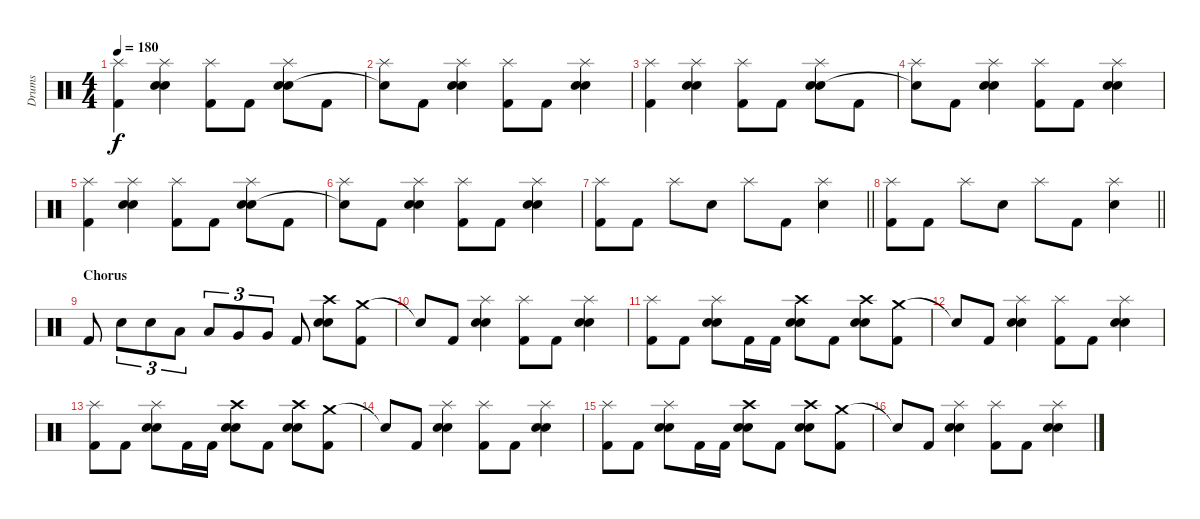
\track ("Drums" "Drums") {instrument percussion}
\staff {score}
\articulation defaults
\ts (4 4)
\tempo 180
\clef neutral
\ks c
("Splash (hit)" "Kick (hit) 2").4{dy f} ("Splash (hit)" "Electric Snare (hit)" "Snare (hit) 2").4 ("Splash (hit)" "Kick (hit) 2").8 "Kick (hit) 2".8 ("Splash (hit)" "Electric Snare (hit)" "Snare (hit) 2").8 "Kick (hit) 2".8 |
("Splash (hit)" "Snare (hit)"{t}).8 "Kick (hit) 2".8 ("Splash (hit)" "Electric Snare (hit)" "Snare (hit) 2").4 ("Splash (hit)" "Kick (hit) 2").8 "Kick (hit) 2".8 ("Splash (hit)" "Electric Snare (hit)" "Snare (hit) 2").4 |
("Splash (hit)" "Kick (hit) 2").4 ("Splash (hit)" "Electric Snare (hit)" "Snare (hit) 2").4 ("Splash (hit)" "Kick (hit) 2").8 "Kick (hit) 2".8 ("Splash (hit)" "Electric Snare (hit)" "Snare (hit) 2").8 "Kick (hit) 2".8 |
("Splash (hit)" "Snare (hit)"{t}).8 "Kick (hit) 2".8 ("Splash (hit)" "Electric Snare (hit)" "Snare (hit) 2").4 ("Splash (hit)" "Kick (hit) 2").8 "Kick (hit) 2".8 ("Splash (hit)" "Electric Snare (hit)" "Snare (hit) 2").4 |
("Splash (hit)" "Kick (hit) 2").4 ("Splash (hit)" "Electric Snare (hit)" "Snare (hit) 2").4 ("Splash (hit)" "Kick (hit) 2").8 "Kick (hit) 2".8 ("Splash (hit)" "Electric Snare (hit)" "Snare (hit) 2").8 "Kick (hit) 2".8 |
("Splash (hit)" "Snare (hit)"{t}).8 "Kick (hit) 2".8 ("Splash (hit)" "Electric Snare (hit)" "Snare (hit) 2").4 ("Splash (hit)" "Kick (hit) 2").8 "Kick (hit) 2".8 ("Splash (hit)" "Electric Snare (hit)" "Snare (hit) 2").4 |
\barLineRight lightlight
("Splash (hit)" "Kick (hit) 2").8 "Kick (hit) 2".8 "Splash (hit)".8 "Electric Snare (hit)".8 "Splash (hit)".8 "Kick (hit) 2".8 ("Splash (hit)" "Electric Snare (hit)").4 |
\barLineRight lightlight
("Splash (hit)" "Kick (hit) 2").8 "Kick (hit) 2".8 "Splash (hit)".8 "Electric Snare (hit)".8 "Splash (hit)".8 "Kick (hit) 2".8 ("Splash (hit)" "Electric Snare (hit)").4 |
\section ("" "Chorus")
"Kick (hit) 2".8 "Electric Snare (hit)".8{tu (3 2)} "Electric Snare (hit)".8{tu (3 2)} "Low Tom (hit)".8{tu (3 2)} "Low Tom (hit)".8{tu (3 2)} "Very Low Tom (hit)".8{tu (3 2)} "Very Low Tom (hit)".8{tu (3 2)} "Kick (hit) 2".8 ("Crash high (hit)" "Electric Snare (hit)" "Snare (hit) 2").8 ("Crash medium (hit)" "Kick (hit) 2").8 |
"Snare (hit)"{t}.8 "Kick (hit) 2".8 ("Splash (hit)" "Electric Snare (hit)" "Snare (hit) 2").4 ("Splash (hit)" "Kick (hit) 2").8 "Kick (hit) 2".8 ("Splash (hit)" "Electric Snare (hit)" "Snare (hit) 2").4 |
("Splash (hit)" "Kick (hit) 2").8 "Kick (hit) 2".8 ("Splash (hit)" "Electric Snare (hit)" "Snare (hit) 2").8 "Kick (hit) 2".16 "Kick (hit) 2".16 ("Crash high (hit)" "Electric Snare (hit)" "Snare (hit) 2").8 "Kick (hit) 2".8 ("Crash high (hit)" "Electric Snare (hit)" "Snare (hit) 2").8 ("Crash medium (hit)" "Kick (hit) 2").8 |
"Snare (hit)"{t}.8 "Kick (hit) 2".8 ("Splash (hit)" "Electric Snare (hit)" "Snare (hit) 2").4 ("Splash (hit)" "Kick (hit) 2").8 "Kick (hit) 2".8 ("Splash (hit)" "Electric Snare (hit)" "Snare (hit) 2").4 |
("Splash (hit)" "Kick (hit) 2").8 "Kick (hit) 2".8 ("Splash (hit)" "Electric Snare (hit)" "Snare (hit) 2").8 "Kick (hit) 2".16 "Kick (hit) 2".16 ("Crash high (hit)" "Electric Snare (hit)" "Snare (hit) 2").8 "Kick (hit) 2".8 ("Crash high (hit)" "Electric Snare (hit)" "Snare (hit) 2").8 ("Crash medium (hit)" "Kick (hit) 2").8 |
"Snare (hit)"{t}.8 "Kick (hit) 2".8 ("Splash (hit)" "Electric Snare (hit)" "Snare (hit) 2").4 ("Splash (hit)" "Kick (hit) 2").8 "Kick (hit) 2".8 ("Splash (hit)" "Electric Snare (hit)" "Snare (hit) 2").4 |
("Splash (hit)" "Kick (hit) 2").8 "Kick (hit) 2".8 ("Splash (hit)" "Electric Snare (hit)" "Snare (hit) 2").8 "Kick (hit) 2".16 "Kick (hit) 2".16 ("Crash high (hit)" "Electric Snare (hit)" "Snare (hit) 2").8 "Kick (hit) 2".8 ("Crash high (hit)" "Electric Snare (hit)" "Snare (hit) 2").8 ("Crash medium (hit)" "Kick (hit) 2").8 |
"Snare (hit)"{t}.8 "Kick (hit) 2".8 ("Splash (hit)" "Electric Snare (hit)" "Snare (hit) 2").4 ("Splash (hit)" "Kick (hit) 2").8 "Kick (hit) 2".8 ("Splash (hit)" "Electric Snare (hit)" "Snare (hit) 2").4
